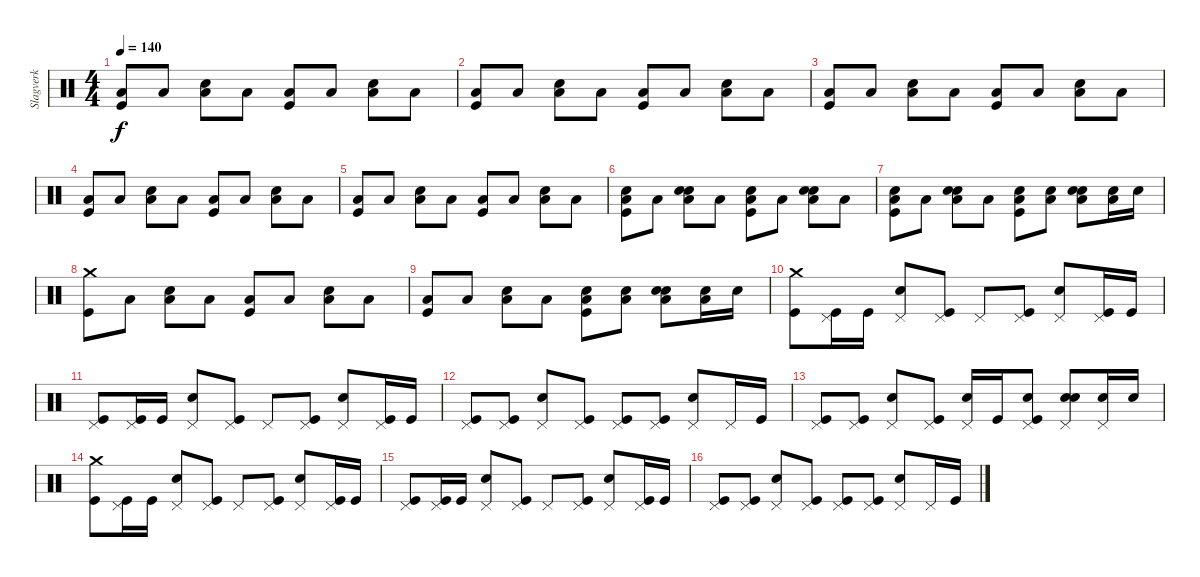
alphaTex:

\track ("Slagverk" "Slagverk") {instrument percussion}
\staff {score}
\articulation defaults
\ts (4 4)
\tempo 140
\clef neutral
\ks c
("Low Floor Tom (hit)" "Kick (hit)").8{dy f} "Low Floor Tom (hit)".8 ("Low Floor Tom (hit)" "Snare (hit) 2").8 "Low Floor Tom (hit)".8 ("Low Floor Tom (hit)" "Kick (hit)").8 "Low Floor Tom (hit)".8 ("Low Floor Tom (hit)" "Snare (hit) 2").8 "Low Floor Tom (hit)".8 |
("Low Floor Tom (hit)" "Kick (hit)").8 "Low Floor Tom (hit)".8 ("Low Floor Tom (hit)" "Snare (hit) 2").8 "Low Floor Tom (hit)".8 ("Low Floor Tom (hit)" "Kick (hit)").8 "Low Floor Tom (hit)".8 ("Low Floor Tom (hit)" "Snare (hit) 2").8 "Low Floor Tom (hit)".8 |
("Low Floor Tom (hit)" "Kick (hit)").8 "Low Floor Tom (hit)".8 ("Low Floor Tom (hit)" "Snare (hit) 2").8 "Low Floor Tom (hit)".8 ("Low Floor Tom (hit)" "Kick (hit)").8 "Low Floor Tom (hit)".8 ("Low Floor Tom (hit)" "Snare (hit) 2").8 "Low Floor Tom (hit)".8 |
("Low Floor Tom (hit)" "Kick (hit)").8 "Low Floor Tom (hit)".8 ("Low Floor Tom (hit)" "Snare (hit) 2").8 "Low Floor Tom (hit)".8 ("Low Floor Tom (hit)" "Kick (hit)").8 "Low Floor Tom (hit)".8 ("Low Floor Tom (hit)" "Snare (hit) 2").8 "Low Floor Tom (hit)".8 |
("Low Floor Tom (hit)" "Kick (hit)").8 "Low Floor Tom (hit)".8 ("Low Floor Tom (hit)" "Snare (hit) 2").8 "Low Floor Tom (hit)".8 ("Low Floor Tom (hit)" "Kick (hit)").8 "Low Floor Tom (hit)".8 ("Low Floor Tom (hit)" "Snare (hit) 2").8 "Low Floor Tom (hit)".8 |
("Low Floor Tom (hit)" "Electric Snare (hit)" "Kick (hit)").8 "Low Floor Tom (hit)".8 ("Low Floor Tom (hit)" "Snare (hit) 2" "Electric Snare (hit)").8 "Low Floor Tom (hit)".8 ("Low Floor Tom (hit)" "Electric Snare (hit)" "Kick (hit)").8 "Low Floor Tom (hit)".8 ("Low Floor Tom (hit)" "Snare (hit) 2" "Electric Snare (hit)").8 "Low Floor Tom (hit)".8 |
("Low Floor Tom (hit)" "Electric Snare (hit)" "Kick (hit)").8 "Low Floor Tom (hit)".8 ("Low Floor Tom (hit)" "Snare (hit) 2" "Electric Snare (hit)").8 "Low Floor Tom (hit)".8 ("Low Floor Tom (hit)" "Electric Snare (hit)" "Kick (hit)").8 ("Low Floor Tom (hit)" "Electric Snare (hit)").8 ("Low Floor Tom (hit)" "Snare (hit) 2" "Electric Snare (hit)").8 ("Low Floor Tom (hit)" "Electric Snare (hit)").16 "Electric Snare (hit)".16 |
("Crash medium (hit)" "Kick (hit)").8 "Low Floor Tom (hit)".8 ("Low Floor Tom (hit)" "Snare (hit) 2").8 "Low Floor Tom (hit)".8 ("Low Floor Tom (hit)" "Kick (hit)").8 "Low Floor Tom (hit)".8 ("Low Floor Tom (hit)" "Snare (hit) 2").8 "Low Floor Tom (hit)".8 |
("Low Floor Tom (hit)" "Kick (hit)").8 "Low Floor Tom (hit)".8 ("Low Floor Tom (hit)" "Snare (hit) 2").8 "Low Floor Tom (hit)".8 ("Low Floor Tom (hit)" "Electric Snare (hit)" "Kick (hit)").8 ("Low Floor Tom (hit)" "Electric Snare (hit)").8 ("Low Floor Tom (hit)" "Snare (hit) 2" "Electric Snare (hit)").8 ("Low Floor Tom (hit)" "Electric Snare (hit)").16 "Electric Snare (hit)".16 |
("Crash medium (hit)" "Kick (hit)").8 ("Pedal Hi-Hat (hit)" "Kick (hit)").16 "Kick (hit)".16 ("Pedal Hi-Hat (hit)" "Snare (hit) 2").8 ("Pedal Hi-Hat (hit)" "Kick (hit)").8 "Pedal Hi-Hat (hit)".8 ("Pedal Hi-Hat (hit)" "Kick (hit)").8 ("Pedal Hi-Hat (hit)" "Snare (hit) 2").8 ("Pedal Hi-Hat (hit)" "Kick (hit)").16 "Kick (hit)".16 |
("Pedal Hi-Hat (hit)" "Kick (hit)").8 ("Pedal Hi-Hat (hit)" "Kick (hit)").16 "Kick (hit)".16 ("Pedal Hi-Hat (hit)" "Snare (hit) 2").8 ("Pedal Hi-Hat (hit)" "Kick (hit)").8 "Pedal Hi-Hat (hit)".8 ("Pedal Hi-Hat (hit)" "Kick (hit)").8 ("Pedal Hi-Hat (hit)" "Snare (hit) 2").8 ("Pedal Hi-Hat (hit)" "Kick (hit)").16 "Kick (hit)".16 |
("Pedal Hi-Hat (hit)" "Kick (hit)").8 ("Pedal Hi-Hat (hit)" "Kick (hit)").8 ("Pedal Hi-Hat (hit)" "Snare (hit) 2").8 ("Pedal Hi-Hat (hit)" "Kick (hit)").8 ("Pedal Hi-Hat (hit)" "Kick (hit)").8 ("Pedal Hi-Hat (hit)" "Kick (hit)").8 ("Pedal Hi-Hat (hit)" "Snare (hit) 2").8 "Pedal Hi-Hat (hit)".16 "Kick (hit)".16 |
("Pedal Hi-Hat (hit)" "Kick (hit)").8 ("Pedal Hi-Hat (hit)" "Kick (hit)").8 ("Pedal Hi-Hat (hit)" "Snare (hit) 2").8 ("Pedal Hi-Hat (hit)" "Kick (hit)").8 ("Pedal Hi-Hat (hit)" "Electric Snare (hit)").16 "Kick (hit)".16 ("Pedal Hi-Hat (hit)" "Electric Snare (hit)" "Kick (hit)").8 ("Pedal Hi-Hat (hit)" "Snare (hit) 2" "Electric Snare (hit)").8 ("Pedal Hi-Hat (hit)" "Electric Snare (hit)").16 "Electric Snare (hit)".16 |
("Crash medium (hit)" "Kick (hit)").8 ("Pedal Hi-Hat (hit)" "Kick (hit)").16 "Kick (hit)".16 ("Pedal Hi-Hat (hit)" "Snare (hit) 2").8 ("Pedal Hi-Hat (hit)" "Kick (hit)").8 "Pedal Hi-Hat (hit)".8 ("Pedal Hi-Hat (hit)" "Kick (hit)").8 ("Pedal Hi-Hat (hit)" "Snare (hit) 2").8 ("Pedal Hi-Hat (hit)" "Kick (hit)").16 "Kick (hit)".16 |
("Pedal Hi-Hat (hit)" "Kick (hit)").8 ("Pedal Hi-Hat (hit)" "Kick (hit)").16 "Kick (hit)".16 ("Pedal Hi-Hat (hit)" "Snare (hit) 2").8 ("Pedal Hi-Hat (hit)" "Kick (hit)").8 "Pedal Hi-Hat (hit)".8 ("Pedal Hi-Hat (hit)" "Kick (hit)").8 ("Pedal Hi-Hat (hit)" "Snare (hit) 2").8 ("Pedal Hi-Hat (hit)" "Kick (hit)").16 "Kick (hit)".16 |
("Pedal Hi-Hat (hit)" "Kick (hit)").8 ("Pedal Hi-Hat (hit)" "Kick (hit)").8 ("Pedal Hi-Hat (hit)" "Snare (hit) 2").8 ("Pedal Hi-Hat (hit)" "Kick (hit)").8 ("Pedal Hi-Hat (hit)" "Kick (hit)").8 ("Pedal Hi-Hat (hit)" "Kick (hit)").8 ("Pedal Hi-Hat (hit)" "Snare (hit) 2").8 "Pedal Hi-Hat (hit)".16 "Kick (hit)".16
